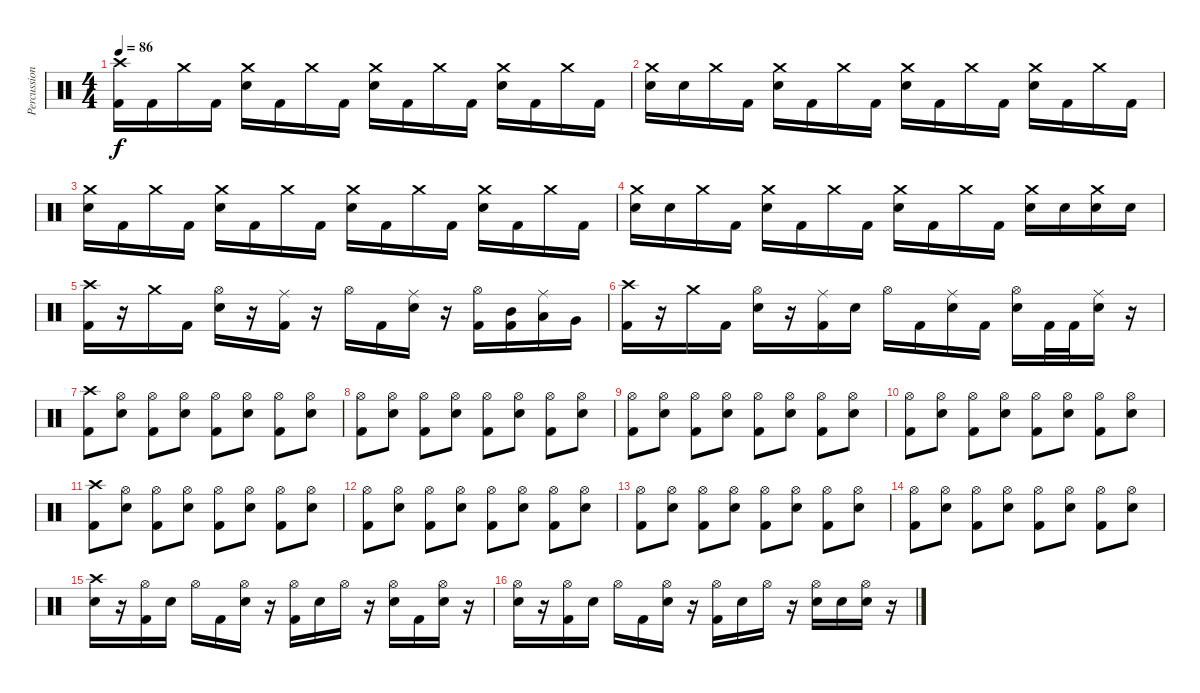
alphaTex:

\track ("Percussion" "Percussion") {instrument percussion}
\staff {score}
\articulation defaults
\ts (4 4)
\tempo 86
\clef neutral
\ks c
("Crash high (hit)" "Kick (hit) 2").16{dy f} "Kick (hit) 2".16 "Crash medium (hit)".16 "Kick (hit) 2".16 ("Crash medium (hit)" "Snare (hit) 2").16 "Kick (hit) 2".16 "Crash medium (hit)".16 "Kick (hit) 2".16 ("Crash medium (hit)" "Snare (hit) 2").16 "Kick (hit) 2".16 "Crash medium (hit)".16 "Kick (hit) 2".16 ("Crash medium (hit)" "Snare (hit) 2").16 "Kick (hit) 2".16 "Crash medium (hit)".16 "Kick (hit) 2".16 |
("Crash medium (hit)" "Snare (hit) 2").16 "Snare (hit) 2".16 "Crash medium (hit)".16 "Kick (hit) 2".16 ("Crash medium (hit)" "Snare (hit) 2").16 "Kick (hit) 2".16 "Crash medium (hit)".16 "Kick (hit) 2".16 ("Crash medium (hit)" "Snare (hit) 2").16 "Kick (hit) 2".16 "Crash medium (hit)".16 "Kick (hit) 2".16 ("Crash medium (hit)" "Snare (hit) 2").16 "Kick (hit) 2".16 "Crash medium (hit)".16 "Kick (hit) 2".16 |
("Crash medium (hit)" "Snare (hit) 2").16 "Kick (hit) 2".16 "Crash medium (hit)".16 "Kick (hit) 2".16 ("Crash medium (hit)" "Snare (hit) 2").16 "Kick (hit) 2".16 "Crash medium (hit)".16 "Kick (hit) 2".16 ("Crash medium (hit)" "Snare (hit) 2").16 "Kick (hit) 2".16 "Crash medium (hit)".16 "Kick (hit) 2".16 ("Crash medium (hit)" "Snare (hit) 2").16 "Kick (hit) 2".16 "Crash medium (hit)".16 "Kick (hit) 2".16 |
("Crash medium (hit)" "Snare (hit) 2").16 "Snare (hit) 2".16 "Crash medium (hit)".16 "Kick (hit) 2".16 ("Crash medium (hit)" "Snare (hit) 2").16 "Kick (hit) 2".16 "Crash medium (hit)".16 "Kick (hit) 2".16 ("Crash medium (hit)" "Snare (hit) 2").16 "Kick (hit) 2".16 "Crash medium (hit)".16 "Kick (hit) 2".16 ("Crash medium (hit)" "Snare (hit) 2").16 "Snare (hit) 2".16 ("Crash medium (hit)" "Snare (hit) 2").16 "Snare (hit) 2".16 |
("Crash high (hit)" "Kick (hit) 2").16 r.16 "Crash medium (hit)".16 "Kick (hit) 2".16 ("Hi-Hat (open)" "Snare (hit) 2").16 r.16 ("Ride (middle)" "Kick (hit) 2").16 r.16 "Hi-Hat (open)".16 "Kick (hit) 2".16 ("Ride (middle)" "Snare (hit) 2").16 r.16 ("Hi-Hat (open)" "Kick (hit) 2").16 ("Mid Tom (hit)" "Kick (hit) 2").16 ("Ride (middle)" "Low Tom (hit)").16 "Very Low Tom (hit)".16 |
("Crash high (hit)" "Kick (hit) 2").16 r.16 "Crash medium (hit)".16 "Kick (hit) 2".16 ("Hi-Hat (open)" "Snare (hit) 2").16 r.16 ("Ride (middle)" "Kick (hit) 2").16 "Snare (hit) 2".16 "Hi-Hat (open)".16 "Kick (hit) 2".16 ("Ride (middle)" "Snare (hit) 2").16 "Kick (hit) 2".16 ("Hi-Hat (open)" "Snare (hit) 2").16 "Kick (hit) 2".32 "Kick (hit) 2".32 ("Ride (middle)" "Snare (hit) 2").16 r.16 |
("Crash high (hit)" "Kick (hit) 2").8 ("Hi-Hat (open)" "Snare (hit) 2").8 ("Hi-Hat (open)" "Kick (hit) 2").8 ("Hi-Hat (open)" "Snare (hit) 2").8 ("Hi-Hat (open)" "Kick (hit) 2").8 ("Hi-Hat (open)" "Snare (hit) 2").8 ("Hi-Hat (open)" "Kick (hit) 2").8 ("Hi-Hat (open)" "Snare (hit) 2").8 |
("Hi-Hat (open)" "Kick (hit) 2").8 ("Hi-Hat (open)" "Snare (hit) 2").8 ("Hi-Hat (open)" "Kick (hit) 2").8 ("Hi-Hat (open)" "Snare (hit) 2").8 ("Hi-Hat (open)" "Kick (hit) 2").8 ("Hi-Hat (open)" "Snare (hit) 2").8 ("Hi-Hat (open)" "Kick (hit) 2").8 ("Hi-Hat (open)" "Snare (hit) 2").8 |
("Hi-Hat (open)" "Kick (hit) 2").8 ("Hi-Hat (open)" "Snare (hit) 2").8 ("Hi-Hat (open)" "Kick (hit) 2").8 ("Hi-Hat (open)" "Snare (hit) 2").8 ("Hi-Hat (open)" "Kick (hit) 2").8 ("Hi-Hat (open)" "Snare (hit) 2").8 ("Hi-Hat (open)" "Kick (hit) 2").8 ("Hi-Hat (open)" "Snare (hit) 2").8 |
("Hi-Hat (open)" "Kick (hit) 2").8 ("Hi-Hat (open)" "Snare (hit) 2").8 ("Hi-Hat (open)" "Kick (hit) 2").8 ("Hi-Hat (open)" "Snare (hit) 2").8 ("Hi-Hat (open)" "Kick (hit) 2").8 ("Hi-Hat (open)" "Snare (hit) 2").8 ("Hi-Hat (open)" "Kick (hit) 2").8 ("Hi-Hat (open)" "Snare (hit) 2").8 |
("Crash high (hit)" "Kick (hit) 2").8 ("Hi-Hat (open)" "Snare (hit) 2").8 ("Hi-Hat (open)" "Kick (hit) 2").8 ("Hi-Hat (open)" "Snare (hit) 2").8 ("Hi-Hat (open)" "Kick (hit) 2").8 ("Hi-Hat (open)" "Snare (hit) 2").8 ("Hi-Hat (open)" "Kick (hit) 2").8 ("Hi-Hat (open)" "Snare (hit) 2").8 |
("Hi-Hat (open)" "Kick (hit) 2").8 ("Hi-Hat (open)" "Snare (hit) 2").8 ("Hi-Hat (open)" "Kick (hit) 2").8 ("Hi-Hat (open)" "Snare (hit) 2").8 ("Hi-Hat (open)" "Kick (hit) 2").8 ("Hi-Hat (open)" "Snare (hit) 2").8 ("Hi-Hat (open)" "Kick (hit) 2").8 ("Hi-Hat (open)" "Snare (hit) 2").8 |
("Hi-Hat (open)" "Kick (hit) 2").8 ("Hi-Hat (open)" "Snare (hit) 2").8 ("Hi-Hat (open)" "Kick (hit) 2").8 ("Hi-Hat (open)" "Snare (hit) 2").8 ("Hi-Hat (open)" "Kick (hit) 2").8 ("Hi-Hat (open)" "Snare (hit) 2").8 ("Hi-Hat (open)" "Kick (hit) 2").8 ("Hi-Hat (open)" "Snare (hit) 2").8 |
("Hi-Hat (open)" "Kick (hit) 2").8 ("Hi-Hat (open)" "Snare (hit) 2").8 ("Hi-Hat (open)" "Kick (hit) 2").8 ("Hi-Hat (open)" "Snare (hit) 2").8 ("Hi-Hat (open)" "Kick (hit) 2").8 ("Hi-Hat (open)" "Snare (hit) 2").8 ("Hi-Hat (open)" "Kick (hit) 2").8 ("Hi-Hat (open)" "Snare (hit) 2").8 |
("Crash high (hit)" "Snare (hit) 2").16 r.16 ("Hi-Hat (open)" "Kick (hit) 2").16 "Snare (hit) 2".16 "Hi-Hat (open)".16 "Kick (hit) 2".16 ("Hi-Hat (open)" "Snare (hit) 2").16 r.16 ("Hi-Hat (open)" "Kick (hit) 2").16 "Snare (hit) 2".16 "Hi-Hat (open)".16 r.16 ("Hi-Hat (open)" "Snare (hit) 2").16 "Kick (hit) 2".16 ("Hi-Hat (open)" "Snare (hit) 2").16 r.16 |
("Hi-Hat (open)" "Snare (hit) 2").16 r.16 ("Hi-Hat (open)" "Kick (hit) 2").16 "Snare (hit) 2".16 "Hi-Hat (open)".16 "Kick (hit) 2".16 ("Hi-Hat (open)" "Snare (hit) 2").16 r.16 ("Hi-Hat (open)" "Kick (hit) 2").16 "Snare (hit) 2".16 "Hi-Hat (open)".16 r.16 ("Hi-Hat (open)" "Snare (hit) 2").16 "Snare (hit) 2".16 ("Hi-Hat (open)" "Snare (hit) 2").16 r.16
